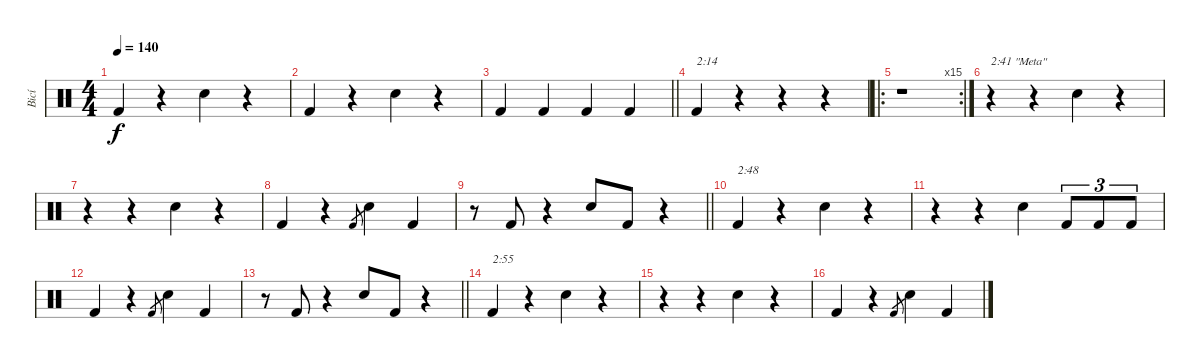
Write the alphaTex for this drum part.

\track ("Bicí" "Bicí") {instrument percussion}
\staff {score}
\articulation defaults
\ts (4 4)
\tempo 140
\clef neutral
\ks c "Kick (hit) 2".4{dy f}
r.4 "Snare (hit) 2".4 r.4 |
"Kick (hit) 2".4 r.4 "Snare (hit) 2".4 r.4 |
\barLineRight lightlight "Kick (hit) 2".4 "Kick (hit) 2".4 "Kick (hit) 2".4 "Kick (hit) 2".4
|
"Kick (hit) 2".4{txt "2:14"} r.4 r.4 r.4 |
\ro
\rc 15
r.1 |
r.4{txt "2:41 \"Meta\""} r.4 "Snare (hit) 2".4 r.4 |
r.4 r.4 "Snare (hit) 2".4 r.4 |
"Kick (hit) 2".4 r.4 "Kick (hit) 2".8{gr} "Snare (hit) 2".4 "Kick (hit) 2".4 |
\barLineRight lightlight
r.8 "Kick (hit) 2".8 r.4 "Snare (hit) 2".8 "Kick (hit) 2".8 r.4 |
"Kick (hit) 2".4{txt "2:48"} r.4 "Snare (hit) 2".4 r.4 |
r.4 r.4 "Snare (hit) 2".4 "Kick (hit) 2".8{tu (3 2)} "Kick (hit) 2".8{tu (3 2)} "Kick (hit) 2".8{tu (3 2)} |
"Kick (hit) 2".4 r.4 "Kick (hit) 2".8{gr} "Snare (hit) 2".4 "Kick (hit) 2".4 |
\barLineRight lightlight
r.8 "Kick (hit) 2".8 r.4 "Snare (hit) 2".8 "Kick (hit) 2".8 r.4 |
"Kick (hit) 2".4{txt "2:55"} r.4 "Snare (hit) 2".4 r.4 |
r.4 r.4 "Snare (hit) 2".4 r.4 |
"Kick (hit) 2".4 r.4 "Kick (hit) 2".8{gr} "Snare (hit) 2".4 "Kick (hit) 2".4
